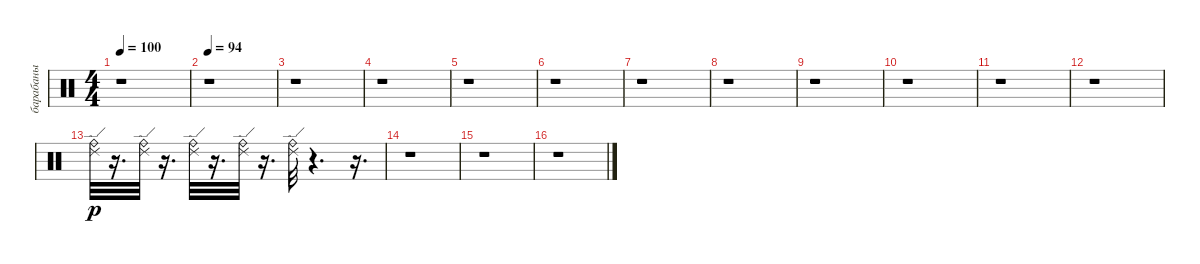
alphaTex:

\track ("барабаны" "барабаны") {instrument percussion}
\staff {score}
\articulation defaults
\ts (4 4)
\tempo 100
\clef neutral
\ks c
r.1{dy p} |
\tempo 94
r.1 |
r.1 |
r.1 |
r.1 |
r.1 |
r.1 |
r.1 |
r.1 |
r.1 |
r.1 |
r.1 |
("Ride (edge) 2" "Ride (bell)").32 r.16{d} ("Ride (bell)" "Ride (edge) 2").32{balance 3} r.16{d} ("Ride (edge) 2" "Ride (bell)").32{balance 1} r.16{d} ("Ride (bell)" "Ride (edge) 2").32{balance 13} r.16{d} ("Ride (bell)" "Ride (edge) 2").32{balance 8} r.4{d} r.16{d} |
r.1 |
r.1 |
r.1
